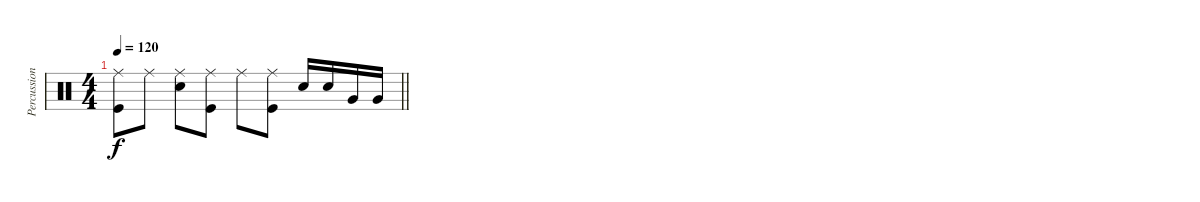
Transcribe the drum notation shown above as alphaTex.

\track ("Percussion" "Percussion") {instrument percussion}
\staff {score}
\articulation defaults
\ts (4 4)
\tempo 120
\clef neutral
\barLineRight lightlight
\ks c
("Kick (hit)" "Ride (middle)").8{dy f} "Ride (middle)".8 ("Ride (middle)" "Snare (hit) 2").8 ("Kick (hit)" "Ride (middle)").8 "Ride (middle)".8 ("Kick (hit)" "Ride (middle)").8 "Snare (hit) 2".16 "Snare (hit) 2".16 "Very Low Tom (hit)".16 "Very Low Tom (hit)".16
